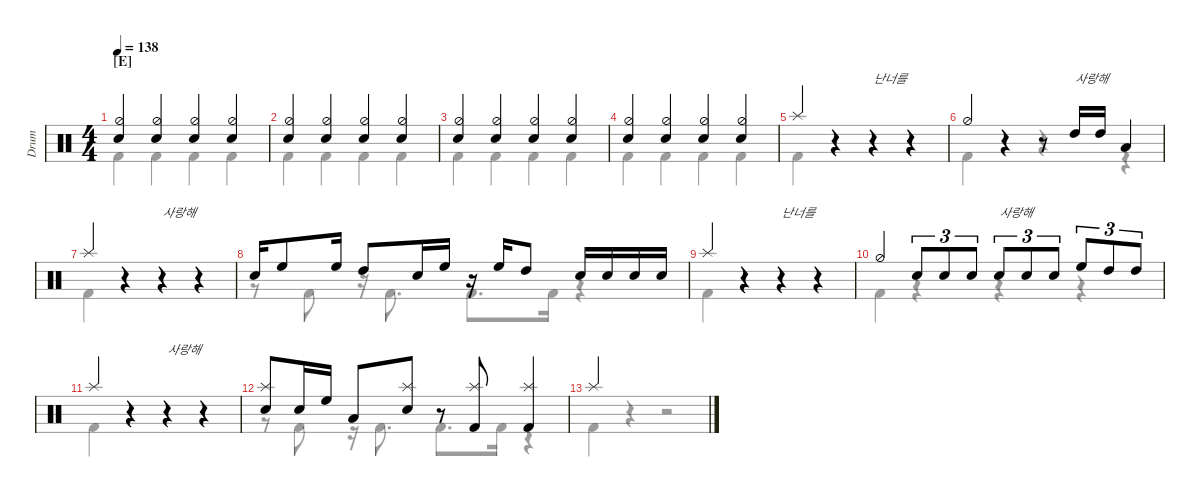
\defaultSystemsLayout 4
\hideDynamics
\bracketExtendMode nobrackets
\track ("Drumkit" "Drum") {instrument percussion}
\staff {score}
\articulation defaults
\voice
\ts (4 4)
\section ("E" "")
\tempo 138
\clef neutral
\ks c
("Snare (hit) 2" "Hi-Hat (half)").4{dy mf beam Up} ("Snare (hit) 2" "Hi-Hat (half)").4{beam Up} ("Snare (hit) 2" "Hi-Hat (half)").4{beam Up} ("Snare (hit) 2" "Hi-Hat (half)").4{beam Up} |
("Snare (hit) 2" "Hi-Hat (half)").4{beam Up} ("Snare (hit) 2" "Hi-Hat (half)").4{beam Up} ("Snare (hit) 2" "Hi-Hat (half)").4{beam Up} ("Snare (hit) 2" "Hi-Hat (half)").4{beam Up} |
("Snare (hit) 2" "Hi-Hat (half)").4{beam Up} ("Snare (hit) 2" "Hi-Hat (half)").4{beam Up} ("Snare (hit) 2" "Hi-Hat (half)").4{beam Up} ("Snare (hit) 2" "Hi-Hat (half)").4{beam Up} |
("Snare (hit) 2" "Hi-Hat (half)").4{beam Up} ("Snare (hit) 2" "Hi-Hat (half)").4{beam Up} ("Snare (hit) 2" "Hi-Hat (half)").4{beam Up} ("Snare (hit) 2" "Hi-Hat (half)").4{beam Up} |
"Splash (hit)".4{beam Up} r.4{beam Up} r.4{txt "난너를" beam Up} r.4{beam Up} |
"Hi-Hat (half)".4{beam Up} r.4{beam Up} r.8{beam Up} "High Tom (hit)".16{txt "사랑해" beam Up} "High Tom (hit)".16{beam Up} "Low Tom (hit)".4{beam Up} |
"Splash (hit)".4{beam Up} r.4{beam Up} r.4{txt "사랑해" beam Up} r.4{beam Up} |
"Snare (hit) 2".16{beam Up} "High Floor Tom (hit)".8{beam Up} "High Floor Tom (hit)".16{beam Up} "High Tom (hit)".8{beam Up} "Snare (hit) 2".16{beam Up} "High Floor Tom (hit)".16{beam Up} r.16{beam Up} "High Floor Tom (hit)".16{beam Up} "High Tom (hit)".8{beam Up} "Snare (hit) 2".16{beam Up} "Snare (hit) 2".16{beam Up} "Snare (hit) 2".16{beam Up} "Snare (hit) 2".16{beam Up} |
"Splash (hit)".4{beam Up} r.4{beam Up} r.4{txt "난너를" beam Up} r.4{beam Up} |
"Hi-Hat (half)".4{beam Up} "Snare (hit) 2".8{tu (3 2) beam Up} "Snare (hit) 2".8{tu (3 2) beam Up} "Snare (hit) 2".8{tu (3 2) beam Up} "Snare (hit) 2".8{tu (3 2) txt "사랑해" beam Up} "Snare (hit) 2".8{tu (3 2) beam Up} "Snare (hit) 2".8{tu (3 2) beam Up} "High Floor Tom (hit)".8{tu (3 2) beam Up} "High Tom (hit)".8{tu (3 2) beam Up} "High Tom (hit)".8{tu (3 2) beam Up} |
"Splash (hit)".4{beam Up} r.4{beam Up} r.4{txt "사랑해" beam Up} r.4{beam Up} |
("Splash (hit)" "Snare (hit) 2").8{beam Up} "Snare (hit) 2".16{beam Up} "High Floor Tom (hit)".16{beam Up} "Low Tom (hit)".8{beam Up} ("Snare (hit) 2" "Splash (hit)").8{beam Up} r.8{beam Up} ("Splash (hit)" "Kick (hit) 2").8{beam Up} ("Splash (hit)" "Kick (hit) 2").4{beam Up} |
"Splash (hit)".4{beam Up} |
|
|
\voice
\clef neutral
\ottava regular
\simile none
\ks c
|
|
|
|
|
|
|
|
|
|
|
|
|
|
|
\voice
\clef neutral
\ottava regular
\simile none
\ks c "Kick (hit) 2".4{dy mf beam Down} "Kick (hit) 2".4{beam Down} "Kick (hit) 2".4{beam Down} "Kick (hit) 2".4{beam Down}
|
"Kick (hit) 2".4{beam Down} "Kick (hit) 2".4{beam Down} "Kick (hit) 2".4{beam Down} "Kick (hit) 2".4{beam Down} |
"Kick (hit) 2".4{beam Down} "Kick (hit) 2".4{beam Down} "Kick (hit) 2".4{beam Down} "Kick (hit) 2".4{beam Down} |
"Kick (hit) 2".4{beam Down} "Kick (hit) 2".4{beam Down} "Kick (hit) 2".4{beam Down} "Kick (hit) 2".4{beam Down} |
"Kick (hit) 2".4{beam Down} r.4{beam Down} r.4{beam Down} r.4{beam Down} |
"Kick (hit) 2".4{beam Down} r.4{beam Down} r.4{beam Down} r.4{beam Down} |
"Kick (hit) 2".4{beam Down} r.4{beam Down} r.4{beam Down} r.4{beam Down} |
r.8{beam Down} "Kick (hit) 2".8{beam Down} r.16{beam Down} "Kick (hit) 2".8{d beam Down} "Kick (hit) 2".8{d beam Down} "Kick (hit) 2".16{beam Down} r.4{beam Down} |
"Kick (hit) 2".4{beam Down} r.4{beam Down} r.4{beam Down} r.4{beam Down} |
"Kick (hit) 2".4{beam Down} r.4{beam Down} r.4{beam Down} r.4{beam Down} |
"Kick (hit) 2".4{beam Down} r.4{beam Down} r.4{beam Down} r.4{beam Down} |
r.8{beam Down} "Kick (hit) 2".8{beam Down} r.16{beam Down} "Kick (hit) 2".8{d beam Down} "Kick (hit) 2".8{d beam Down} "Kick (hit) 2".16{beam Down} r.4{beam Down} |
"Kick (hit) 2".4{beam Down} r.4{beam Down} r.2{beam Down} |
|
|
